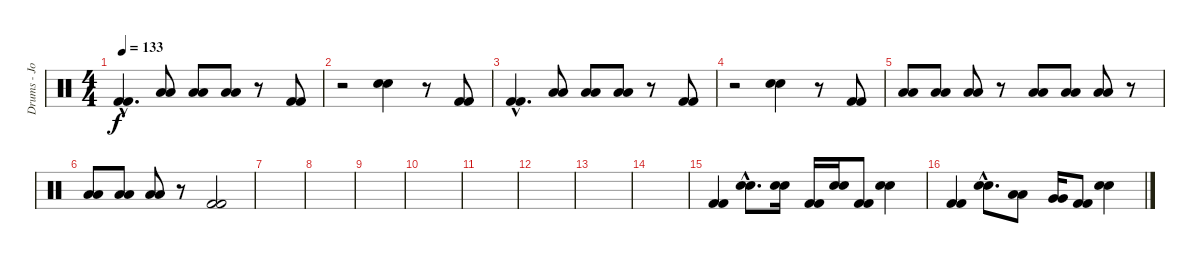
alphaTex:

\track ("Drums - Joe Daniels" "Drums - Jo") {instrument percussion}
\staff {score}
\articulation defaults
\ts (4 4)
\tempo 133
\clef neutral
\ks c
("Kick (hit) 2"{hac} "Kick (hit) 2"{hac}).4{d dy f} ("Low Floor Tom (hit)" "Low Floor Tom (hit)").8 ("Low Floor Tom (hit)" "Low Floor Tom (hit)").8 ("Low Floor Tom (hit)" "Low Floor Tom (hit)").8 r.8 ("Kick (hit) 2" "Kick (hit) 2").8 |
r.2 ("Snare (hit) 2" "Snare (hit) 2").4 r.8 ("Kick (hit) 2" "Kick (hit) 2").8 |
("Kick (hit) 2"{hac} "Kick (hit) 2"{hac}).4{d} ("Low Floor Tom (hit)" "Low Floor Tom (hit)").8 ("Low Floor Tom (hit)" "Low Floor Tom (hit)").8 ("Low Floor Tom (hit)" "Low Floor Tom (hit)").8 r.8 ("Kick (hit) 2" "Kick (hit) 2").8 |
r.2 ("Snare (hit) 2" "Snare (hit) 2").4 r.8 ("Kick (hit) 2" "Kick (hit) 2").8 |
("Low Floor Tom (hit)" "Low Floor Tom (hit)").8 ("Low Floor Tom (hit)" "Low Floor Tom (hit)").8 ("Low Floor Tom (hit)" "Low Floor Tom (hit)").8 r.8 ("Low Floor Tom (hit)" "Low Floor Tom (hit)").8 ("Low Floor Tom (hit)" "Low Floor Tom (hit)").8 ("Low Floor Tom (hit)" "Low Floor Tom (hit)").8 r.8 |
("Low Floor Tom (hit)" "Low Floor Tom (hit)").8 ("Low Floor Tom (hit)" "Low Floor Tom (hit)").8 ("Low Floor Tom (hit)" "Low Floor Tom (hit)").8 r.8 ("Kick (hit) 2" "Kick (hit) 2").2 |
|
|
|
|
|
|
|
|
("Kick (hit) 2" "Kick (hit) 2").4 ("Snare (hit) 2"{hac} "Snare (hit) 2"{hac}).8{d} ("Snare (hit) 2" "Snare (hit) 2").16 ("Kick (hit) 2" "Kick (hit) 2").16 ("Snare (hit) 2" "Snare (hit) 2").16 ("Kick (hit) 2" "Kick (hit) 2").8 ("Snare (hit) 2" "Snare (hit) 2").4 |
("Kick (hit) 2" "Kick (hit) 2").4 ("Snare (hit) 2"{hac} "Snare (hit) 2"{hac}).8{d} ("Low Tom (hit)" "Low Tom (hit)").8 ("Very Low Tom (hit)" "Very Low Tom (hit)").16 ("Kick (hit) 2" "Kick (hit) 2").8 ("Snare (hit) 2" "Snare (hit) 2").4
